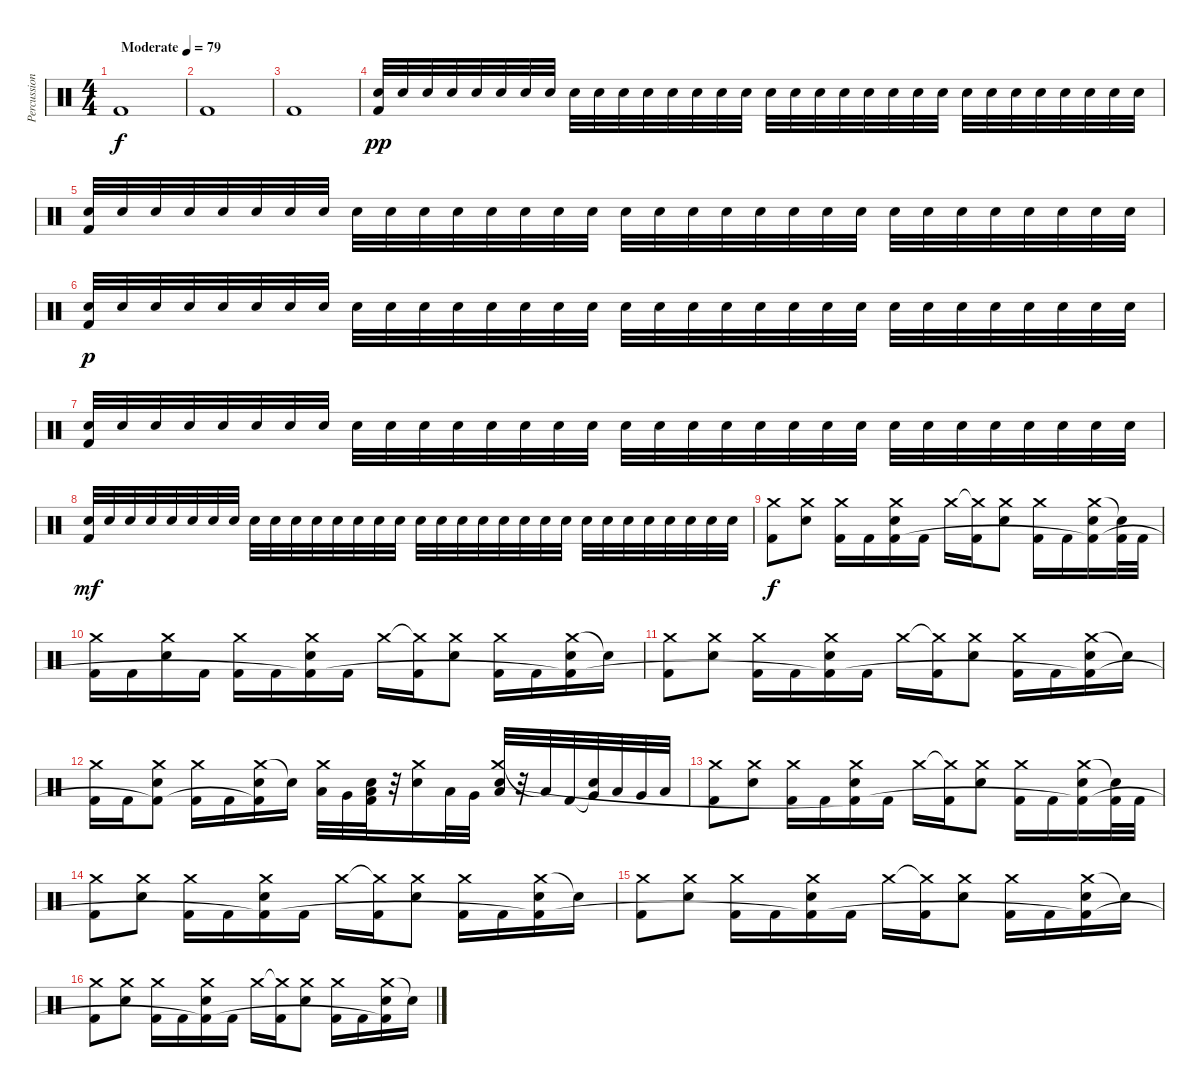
\track ("Percussion" "Percussion") {instrument percussion}
\staff {score}
\articulation defaults
\ts (4 4)
\tempo (79 "Moderate")
\clef neutral
\ks c "Kick (hit) 2".1{dy f}
|
"Kick (hit) 2".1 |
"Kick (hit) 2".1 |
("Snare (hit) 2" "Kick (hit) 2").32{dy pp} "Snare (hit) 2".32 "Snare (hit) 2".32 "Snare (hit) 2".32 "Snare (hit) 2".32 "Snare (hit) 2".32 "Snare (hit) 2".32 "Snare (hit) 2".32 "Snare (hit) 2".32 "Snare (hit) 2".32 "Snare (hit) 2".32 "Snare (hit) 2".32 "Snare (hit) 2".32 "Snare (hit) 2".32 "Snare (hit) 2".32 "Snare (hit) 2".32 "Snare (hit) 2".32 "Snare (hit) 2".32 "Snare (hit) 2".32 "Snare (hit) 2".32 "Snare (hit) 2".32 "Snare (hit) 2".32 "Snare (hit) 2".32 "Snare (hit) 2".32 "Snare (hit) 2".32 "Snare (hit) 2".32 "Snare (hit) 2".32 "Snare (hit) 2".32 "Snare (hit) 2".32 "Snare (hit) 2".32 "Snare (hit) 2".32 "Snare (hit) 2".32 |
("Snare (hit) 2" "Kick (hit) 2").32 "Snare (hit) 2".32 "Snare (hit) 2".32 "Snare (hit) 2".32 "Snare (hit) 2".32 "Snare (hit) 2".32 "Snare (hit) 2".32 "Snare (hit) 2".32 "Snare (hit) 2".32 "Snare (hit) 2".32 "Snare (hit) 2".32 "Snare (hit) 2".32 "Snare (hit) 2".32 "Snare (hit) 2".32 "Snare (hit) 2".32 "Snare (hit) 2".32 "Snare (hit) 2".32 "Snare (hit) 2".32 "Snare (hit) 2".32 "Snare (hit) 2".32 "Snare (hit) 2".32 "Snare (hit) 2".32 "Snare (hit) 2".32 "Snare (hit) 2".32 "Snare (hit) 2".32 "Snare (hit) 2".32 "Snare (hit) 2".32 "Snare (hit) 2".32 "Snare (hit) 2".32 "Snare (hit) 2".32 "Snare (hit) 2".32 "Snare (hit) 2".32 |
("Snare (hit) 2" "Kick (hit) 2").32{dy p} "Snare (hit) 2".32 "Snare (hit) 2".32 "Snare (hit) 2".32 "Snare (hit) 2".32 "Snare (hit) 2".32 "Snare (hit) 2".32 "Snare (hit) 2".32 "Snare (hit) 2".32 "Snare (hit) 2".32 "Snare (hit) 2".32 "Snare (hit) 2".32 "Snare (hit) 2".32 "Snare (hit) 2".32 "Snare (hit) 2".32 "Snare (hit) 2".32 "Snare (hit) 2".32 "Snare (hit) 2".32 "Snare (hit) 2".32 "Snare (hit) 2".32 "Snare (hit) 2".32 "Snare (hit) 2".32 "Snare (hit) 2".32 "Snare (hit) 2".32 "Snare (hit) 2".32 "Snare (hit) 2".32 "Snare (hit) 2".32 "Snare (hit) 2".32 "Snare (hit) 2".32 "Snare (hit) 2".32 "Snare (hit) 2".32 "Snare (hit) 2".32 |
("Snare (hit) 2" "Kick (hit) 2").32 "Snare (hit) 2".32 "Snare (hit) 2".32 "Snare (hit) 2".32 "Snare (hit) 2".32 "Snare (hit) 2".32 "Snare (hit) 2".32 "Snare (hit) 2".32 "Snare (hit) 2".32 "Snare (hit) 2".32 "Snare (hit) 2".32 "Snare (hit) 2".32 "Snare (hit) 2".32 "Snare (hit) 2".32 "Snare (hit) 2".32 "Snare (hit) 2".32 "Snare (hit) 2".32 "Snare (hit) 2".32 "Snare (hit) 2".32 "Snare (hit) 2".32 "Snare (hit) 2".32 "Snare (hit) 2".32 "Snare (hit) 2".32 "Snare (hit) 2".32 "Snare (hit) 2".32 "Snare (hit) 2".32 "Snare (hit) 2".32 "Snare (hit) 2".32 "Snare (hit) 2".32 "Snare (hit) 2".32 "Snare (hit) 2".32 "Snare (hit) 2".32 |
("Snare (hit) 2" "Kick (hit) 2").32{dy mf} "Snare (hit) 2".32 "Snare (hit) 2".32 "Snare (hit) 2".32 "Snare (hit) 2".32 "Snare (hit) 2".32 "Snare (hit) 2".32 "Snare (hit) 2".32 "Snare (hit) 2".32 "Snare (hit) 2".32 "Snare (hit) 2".32 "Snare (hit) 2".32 "Snare (hit) 2".32 "Snare (hit) 2".32 "Snare (hit) 2".32 "Snare (hit) 2".32 "Snare (hit) 2".32 "Snare (hit) 2".32 "Snare (hit) 2".32 "Snare (hit) 2".32 "Snare (hit) 2".32 "Snare (hit) 2".32 "Snare (hit) 2".32 "Snare (hit) 2".32 "Snare (hit) 2".32 "Snare (hit) 2".32 "Snare (hit) 2".32 "Snare (hit) 2".32 "Snare (hit) 2".32 "Snare (hit) 2".32 "Snare (hit) 2".32 "Snare (hit) 2".32 |
("Crash medium (hit)" "Kick (hit) 2").8{dy f} ("Crash medium (hit)" "Snare (hit) 2").8 ("Crash medium (hit)" "Kick (hit) 2").16 "Kick (hit) 2".16 ("Crash medium (hit)" "Snare (hit) 2" "Kick (hit) 2").16 "Kick (hit) 2".16 "Crash medium (hit)".16 ("Crash medium (hit)"{t} "Kick (hit) 2").16 ("Crash medium (hit)" "Snare (hit) 2").8 ("Crash medium (hit)" "Kick (hit) 2").16 "Kick (hit) 2".16 ("Crash medium (hit)" "Snare (hit) 2" "Kick (hit) 2"{t}).16 ("Snare (hit)"{t} "Kick (hit) 2").32 "Kick (hit) 2".32 |
("Crash medium (hit)" "Kick (hit) 2").16 "Kick (hit) 2".16 ("Crash medium (hit)" "Snare (hit) 2").16 "Kick (hit) 2".16 ("Crash medium (hit)" "Kick (hit) 2").16 "Kick (hit) 2".16 ("Crash medium (hit)" "Snare (hit) 2" "Kick (hit) 2"{t}).16 "Kick (hit) 2".16 "Crash medium (hit)".16 ("Crash medium (hit)"{t} "Kick (hit) 2").16 ("Crash medium (hit)" "Snare (hit) 2").8 ("Crash medium (hit)" "Kick (hit) 2").16 "Kick (hit) 2".16 ("Crash medium (hit)" "Snare (hit) 2" "Kick (hit) 2"{t}).16 "Snare (hit)"{t}.16 |
("Crash medium (hit)" "Kick (hit) 2").8 ("Crash medium (hit)" "Snare (hit) 2").8 ("Crash medium (hit)" "Kick (hit) 2").16 "Kick (hit) 2".16 ("Crash medium (hit)" "Snare (hit) 2" "Kick (hit) 2"{t}).16 "Kick (hit) 2".16 "Crash medium (hit)".16 ("Crash medium (hit)"{t} "Kick (hit) 2").16 ("Crash medium (hit)" "Snare (hit) 2").8 ("Crash medium (hit)" "Kick (hit) 2").16 "Kick (hit) 2".16 ("Crash medium (hit)" "Snare (hit) 2" "Kick (hit) 2"{t}).16 "Snare (hit)"{t}.16 |
("Crash medium (hit)" "Kick (hit) 2").16 "Kick (hit) 2".16 ("Crash medium (hit)" "Snare (hit) 2" "Kick (hit) 2"{t}).8 ("Crash medium (hit)" "Kick (hit) 2").16 "Kick (hit) 2".16 ("Crash medium (hit)" "Snare (hit) 2" "Kick (hit) 2"{t}).16 "Snare (hit)"{t}.16 ("Crash medium (hit)" "Low Tom (hit)").32 "Very Low Tom (hit)".32 ("Low Floor Tom (hit)" "Snare (hit) 2" "Kick (hit) 2").32 r.32 ("Crash medium (hit)" "Snare (hit) 2").16 "Low Tom (hit)".32 "Very Low Tom (hit)".32 ("Crash medium (hit)" "Low Tom (hit)" "Snare (hit) 2").32 r.32 "Low Floor Tom (hit)"{t}.32 "Kick (hit) 2".32 ("Very Low Tom (hit)"{t} "Snare (hit) 2").32 "Low Tom (hit)".32 "Very Low Tom (hit)".32 "Low Floor Tom (hit)".32 |
("Crash medium (hit)" "Kick (hit) 2").8 ("Crash medium (hit)" "Snare (hit) 2").8 ("Crash medium (hit)" "Kick (hit) 2").16 "Kick (hit) 2".16 ("Crash medium (hit)" "Snare (hit) 2" "Kick (hit) 2"{t}).16 "Kick (hit) 2".16 "Crash medium (hit)".16 ("Crash medium (hit)"{t} "Kick (hit) 2").16 ("Crash medium (hit)" "Snare (hit) 2").8 ("Crash medium (hit)" "Kick (hit) 2").16 "Kick (hit) 2".16 ("Crash medium (hit)" "Snare (hit) 2" "Kick (hit) 2"{t}).16 ("Snare (hit)"{t} "Kick (hit) 2").32 "Kick (hit) 2".32 |
("Crash medium (hit)" "Kick (hit) 2").8 ("Crash medium (hit)" "Snare (hit) 2").8 ("Crash medium (hit)" "Kick (hit) 2").16 "Kick (hit) 2".16 ("Crash medium (hit)" "Snare (hit) 2" "Kick (hit) 2"{t}).16 "Kick (hit) 2".16 "Crash medium (hit)".16 ("Crash medium (hit)"{t} "Kick (hit) 2").16 ("Crash medium (hit)" "Snare (hit) 2").8 ("Crash medium (hit)" "Kick (hit) 2").16 "Kick (hit) 2".16 ("Crash medium (hit)" "Snare (hit) 2" "Kick (hit) 2"{t}).16 "Snare (hit)"{t}.16 |
("Crash medium (hit)" "Kick (hit) 2").8 ("Crash medium (hit)" "Snare (hit) 2").8 ("Crash medium (hit)" "Kick (hit) 2").16 "Kick (hit) 2".16 ("Crash medium (hit)" "Snare (hit) 2" "Kick (hit) 2"{t}).16 "Kick (hit) 2".16 "Crash medium (hit)".16 ("Crash medium (hit)"{t} "Kick (hit) 2").16 ("Crash medium (hit)" "Snare (hit) 2").8 ("Crash medium (hit)" "Kick (hit) 2").16 "Kick (hit) 2".16 ("Crash medium (hit)" "Snare (hit) 2" "Kick (hit) 2"{t}).16 "Snare (hit)"{t}.16 |
("Crash medium (hit)" "Kick (hit) 2").8 ("Crash medium (hit)" "Snare (hit) 2").8 ("Crash medium (hit)" "Kick (hit) 2").16 "Kick (hit) 2".16 ("Crash medium (hit)" "Snare (hit) 2" "Kick (hit) 2"{t}).16 "Kick (hit) 2".16 "Crash medium (hit)".16 ("Crash medium (hit)"{t} "Kick (hit) 2").16 ("Crash medium (hit)" "Snare (hit) 2").8 ("Crash medium (hit)" "Kick (hit) 2").16 "Kick (hit) 2".16 ("Crash medium (hit)" "Snare (hit) 2" "Kick (hit) 2"{t}).16 "Snare (hit)"{t}.16
